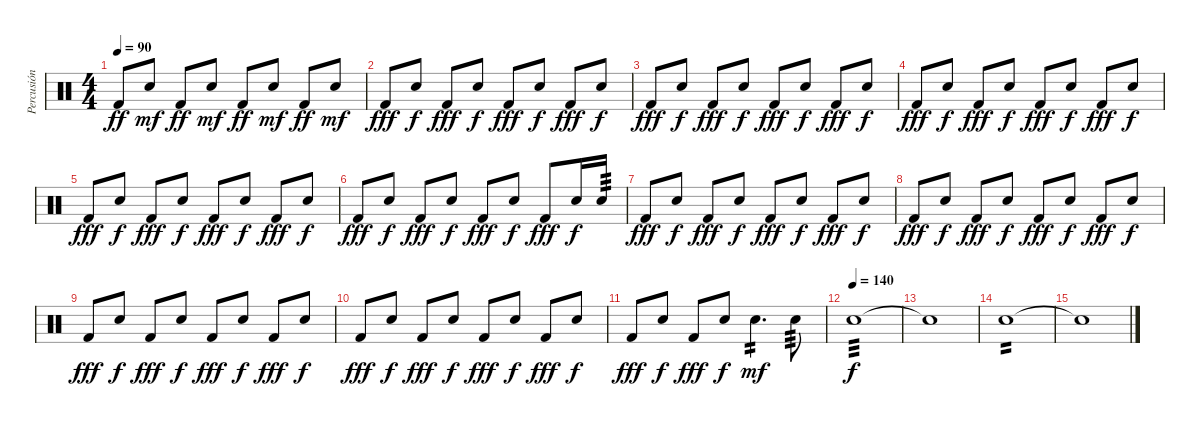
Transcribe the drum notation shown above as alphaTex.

\track ("Percusión" "Percusión") {instrument percussion}
\staff {score}
\articulation defaults
\ts (4 4)
\tempo 90
\clef neutral
\ks c "Kick (hit) 2".8{dy ff} "Electric Snare (hit)".8{dy mf} "Kick (hit) 2".8{dy ff} "Electric Snare (hit)".8{dy mf} "Kick (hit) 2".8{dy ff} "Electric Snare (hit)".8{dy mf} "Kick (hit) 2".8{dy ff} "Electric Snare (hit)".8{dy mf}
|
"Kick (hit) 2".8{dy fff} "Electric Snare (hit)".8{dy f} "Kick (hit) 2".8{dy fff} "Electric Snare (hit)".8{dy f} "Kick (hit) 2".8{dy fff} "Electric Snare (hit)".8{dy f} "Kick (hit) 2".8{dy fff} "Electric Snare (hit)".8{dy f} |
"Kick (hit) 2".8{dy fff} "Electric Snare (hit)".8{dy f} "Kick (hit) 2".8{dy fff} "Electric Snare (hit)".8{dy f} "Kick (hit) 2".8{dy fff} "Electric Snare (hit)".8{dy f} "Kick (hit) 2".8{dy fff} "Electric Snare (hit)".8{dy f} |
"Kick (hit) 2".8{dy fff} "Electric Snare (hit)".8{dy f} "Kick (hit) 2".8{dy fff} "Electric Snare (hit)".8{dy f} "Kick (hit) 2".8{dy fff} "Electric Snare (hit)".8{dy f} "Kick (hit) 2".8{dy fff} "Electric Snare (hit)".8{dy f} |
"Kick (hit) 2".8{dy fff} "Electric Snare (hit)".8{dy f} "Kick (hit) 2".8{dy fff} "Electric Snare (hit)".8{dy f} "Kick (hit) 2".8{dy fff} "Electric Snare (hit)".8{dy f} "Kick (hit) 2".8{dy fff} "Electric Snare (hit)".8{dy f} |
"Kick (hit) 2".8{dy fff} "Electric Snare (hit)".8{dy f} "Kick (hit) 2".8{dy fff} "Electric Snare (hit)".8{dy f} "Kick (hit) 2".8{dy fff} "Electric Snare (hit)".8{dy f} "Kick (hit) 2".8{dy fff} "Electric Snare (hit)".16{dy f} "Electric Snare (hit)".16{tp 3} |
"Kick (hit) 2".8{dy fff} "Electric Snare (hit)".8{dy f} "Kick (hit) 2".8{dy fff} "Electric Snare (hit)".8{dy f} "Kick (hit) 2".8{dy fff} "Electric Snare (hit)".8{dy f} "Kick (hit) 2".8{dy fff} "Electric Snare (hit)".8{dy f} |
"Kick (hit) 2".8{dy fff} "Electric Snare (hit)".8{dy f} "Kick (hit) 2".8{dy fff} "Electric Snare (hit)".8{dy f} "Kick (hit) 2".8{dy fff} "Electric Snare (hit)".8{dy f} "Kick (hit) 2".8{dy fff} "Electric Snare (hit)".8{dy f} |
"Kick (hit) 2".8{dy fff} "Electric Snare (hit)".8{dy f} "Kick (hit) 2".8{dy fff} "Electric Snare (hit)".8{dy f} "Kick (hit) 2".8{dy fff} "Electric Snare (hit)".8{dy f} "Kick (hit) 2".8{dy fff} "Electric Snare (hit)".8{dy f} |
"Kick (hit) 2".8{dy fff} "Electric Snare (hit)".8{dy f} "Kick (hit) 2".8{dy fff} "Electric Snare (hit)".8{dy f} "Kick (hit) 2".8{dy fff} "Electric Snare (hit)".8{dy f} "Kick (hit) 2".8{dy fff} "Electric Snare (hit)".8{dy f} |
"Kick (hit) 2".8{dy fff} "Electric Snare (hit)".8{dy f} "Kick (hit) 2".8{dy fff} "Electric Snare (hit)".8{dy f} "Electric Snare (hit)".4{d tp 2 dy mf} "Electric Snare (hit)".8{tp 3} |
\tempo (140)
"Electric Snare (hit)".1{tp 3 dy f} |
"Snare (hit)"{t}.1 |
"Electric Snare (hit)".1{tp 2} |
"Snare (hit)"{t}.1
